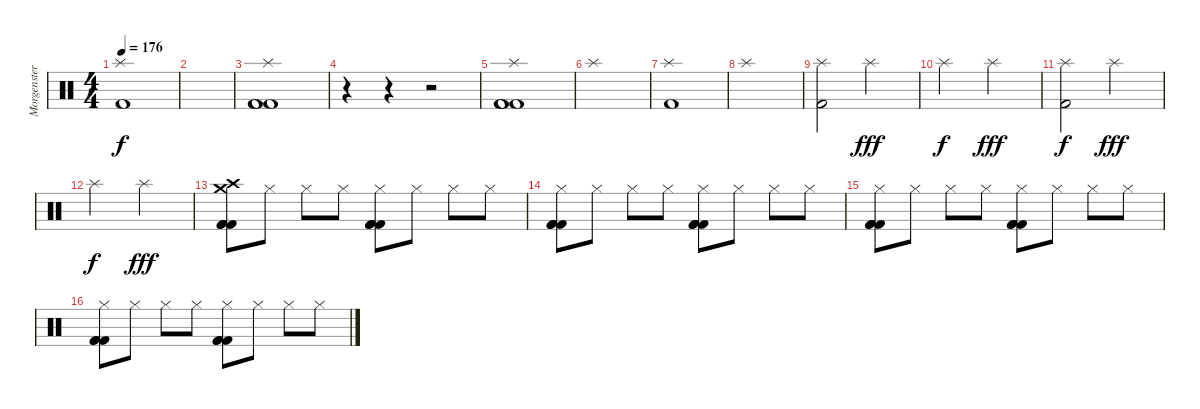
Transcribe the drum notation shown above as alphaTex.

\track ("Morgenstern (Schlagzeug)" "Morgenster") {instrument percussion}
\staff {score}
\articulation defaults
\ts (4 4)
\tempo 176
\clef neutral
\ks c
("Splash (hit)" "Kick (hit) 2").1{dy f} |
|
("Splash (hit)" "Kick (hit) 2" "Kick (hit) 2" "Kick (hit) 2").1 |
r.4 r.4 r.2 |
("Splash (hit)" "Kick (hit) 2" "Kick (hit) 2" "Kick (hit) 2").1 |
"Splash (hit)".1 |
("Splash (hit)" "Kick (hit) 2").1 |
"Splash (hit)".1 |
("Splash (hit)" "Kick (hit) 2").2 "Splash (hit)".2{dy fff} |
"Splash (hit)".2{dy f} "Splash (hit)".2{dy fff} |
("Splash (hit)" "Kick (hit) 2").2{dy f} "Splash (hit)".2{dy fff} |
"Splash (hit)".2{dy f} "Splash (hit)".2{dy fff} |
("Crash high (hit)" "Crash medium (hit)" "Kick (hit) 2" "Kick (hit) 2" "Kick (hit) 2").8 "Hi-Hat (closed)".8 "Hi-Hat (closed)".8 "Hi-Hat (closed)".8 ("Hi-Hat (closed)" "Kick (hit) 2" "Kick (hit) 2" "Kick (hit) 2").8 "Hi-Hat (closed)".8 "Hi-Hat (closed)".8 "Hi-Hat (closed)".8 |
("Hi-Hat (closed)" "Kick (hit) 2" "Kick (hit) 2" "Kick (hit) 2").8 "Hi-Hat (closed)".8 "Hi-Hat (closed)".8 "Hi-Hat (closed)".8 ("Hi-Hat (closed)" "Kick (hit) 2" "Kick (hit) 2" "Kick (hit) 2").8 "Hi-Hat (closed)".8 "Hi-Hat (closed)".8 "Hi-Hat (closed)".8 |
("Hi-Hat (closed)" "Kick (hit) 2" "Kick (hit) 2" "Kick (hit) 2").8 "Hi-Hat (closed)".8 "Hi-Hat (closed)".8 "Hi-Hat (closed)".8 ("Hi-Hat (closed)" "Kick (hit) 2" "Kick (hit) 2" "Kick (hit) 2").8 "Hi-Hat (closed)".8 "Hi-Hat (closed)".8 "Hi-Hat (closed)".8 |
("Hi-Hat (closed)" "Kick (hit) 2" "Kick (hit) 2" "Kick (hit) 2").8 "Hi-Hat (closed)".8 "Hi-Hat (closed)".8 "Hi-Hat (closed)".8 ("Hi-Hat (closed)" "Kick (hit) 2" "Kick (hit) 2" "Kick (hit) 2").8 "Hi-Hat (closed)".8 "Hi-Hat (closed)".8 "Hi-Hat (closed)".8
